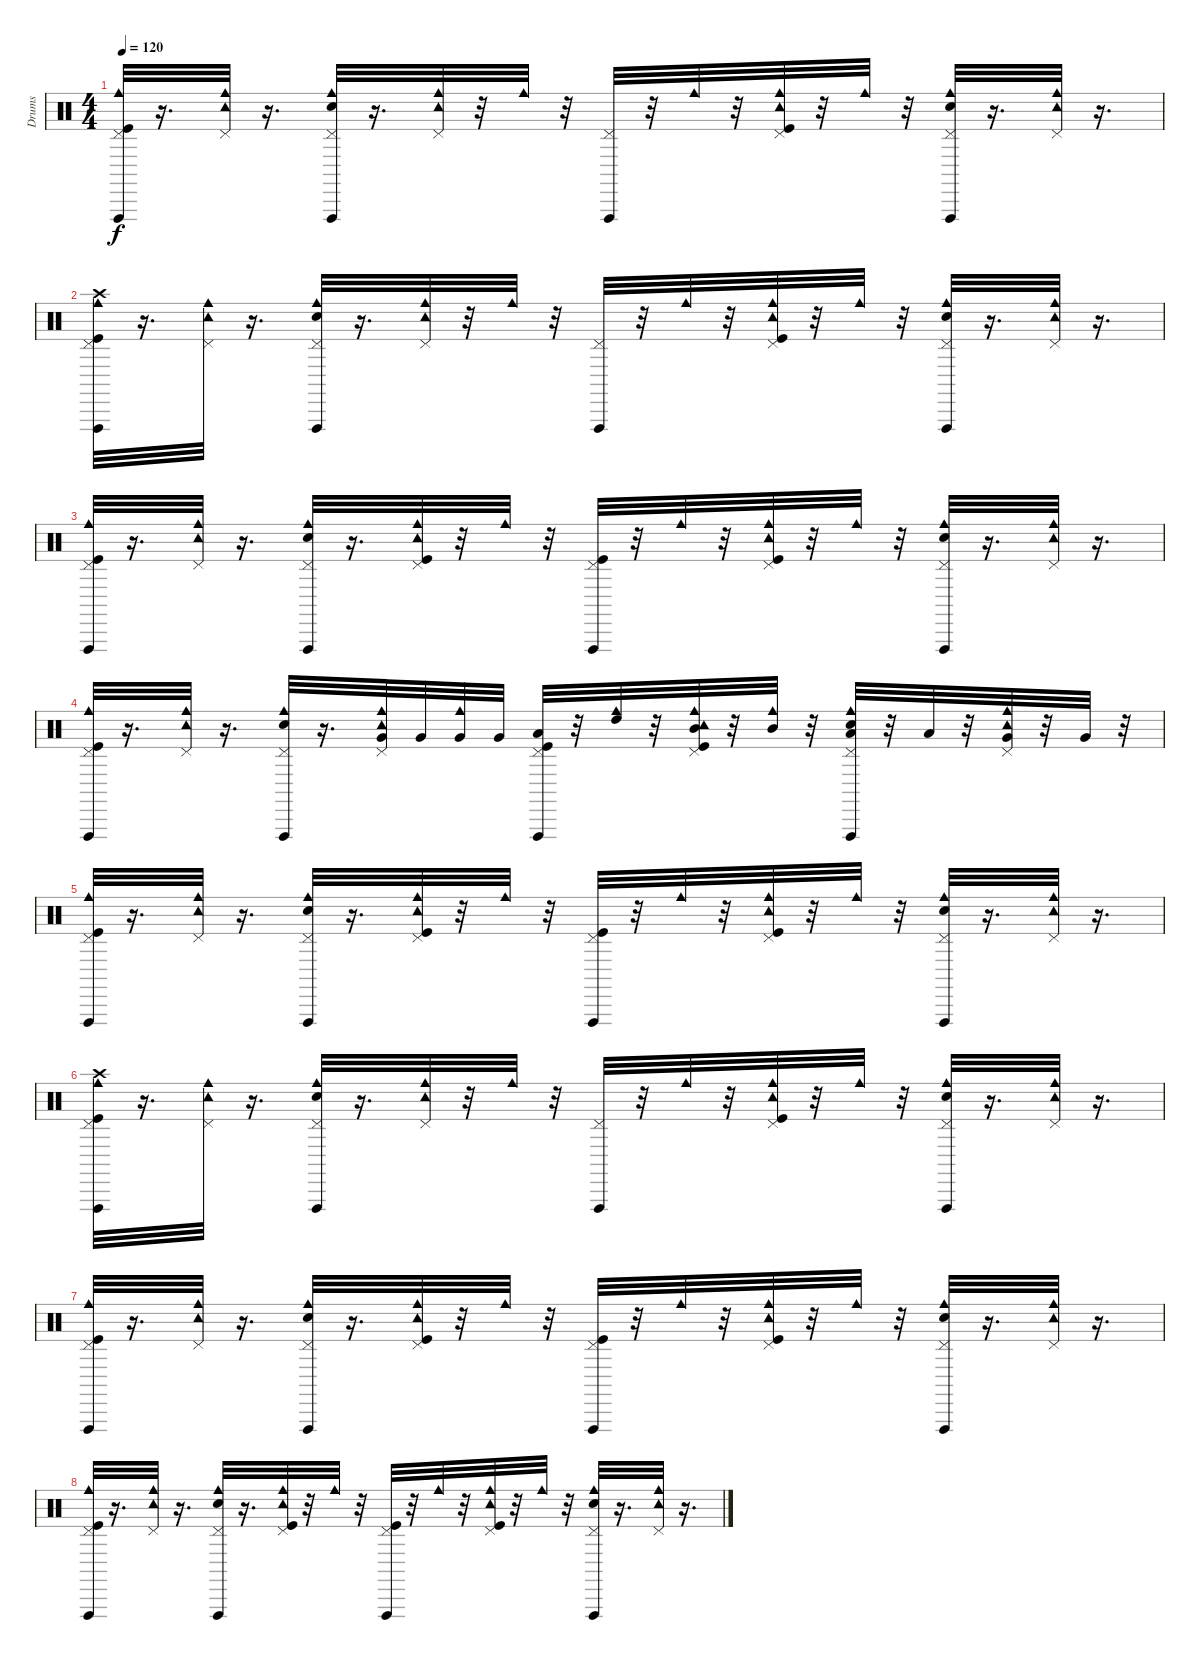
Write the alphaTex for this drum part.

\track ("Drums" "Drums") {instrument percussion}
\staff {score}
\articulation defaults
\ts (4 4)
\tempo 120
\clef neutral
\ks c
("Pedal Hi-Hat (hit)" "Kick (hit)" "Cowbell medium (hit)" "Vibraslap (hit)").32{dy f} r.16{d} ("Pedal Hi-Hat (hit)" "Tambourine (hit)" "Cowbell medium (hit)").32 r.16{d} ("Pedal Hi-Hat (hit)" "Snare (hit) 2" "Cowbell medium (hit)" "Vibraslap (hit)").32 r.16{d} ("Pedal Hi-Hat (hit)" "Tambourine (hit)" "Cowbell medium (hit)").32 r.32 "Cowbell medium (hit)".32 r.32 ("Pedal Hi-Hat (hit)" "Vibraslap (hit)").32 r.32 "Cowbell medium (hit)".32 r.32 ("Pedal Hi-Hat (hit)" "Kick (hit)" "Tambourine (hit)" "Cowbell medium (hit)").32 r.32 "Cowbell medium (hit)".32 r.32 ("Pedal Hi-Hat (hit)" "Snare (hit) 2" "Cowbell medium (hit)" "Vibraslap (hit)").32 r.16{d} ("Pedal Hi-Hat (hit)" "Tambourine (hit)" "Cowbell medium (hit)").32 r.16{d} |
("Kick (hit)" "Cowbell medium (hit)" "Pedal Hi-Hat (hit)" "Crash high (hit)" "Vibraslap (hit)").32 r.16{d} ("Cowbell medium (hit)" "Pedal Hi-Hat (hit)" "Tambourine (hit)").32 r.16{d} ("Pedal Hi-Hat (hit)" "Snare (hit) 2" "Cowbell medium (hit)" "Vibraslap (hit)").32 r.16{d} ("Cowbell medium (hit)" "Pedal Hi-Hat (hit)" "Tambourine (hit)").32 r.32 "Cowbell medium (hit)".32 r.32 ("Pedal Hi-Hat (hit)" "Vibraslap (hit)").32 r.32 "Cowbell medium (hit)".32 r.32 ("Kick (hit)" "Pedal Hi-Hat (hit)" "Tambourine (hit)" "Cowbell medium (hit)").32 r.32 "Cowbell medium (hit)".32 r.32 ("Cowbell medium (hit)" "Pedal Hi-Hat (hit)" "Snare (hit) 2" "Vibraslap (hit)").32 r.16{d} ("Tambourine (hit)" "Pedal Hi-Hat (hit)" "Cowbell medium (hit)").32 r.16{d} |
("Kick (hit)" "Cowbell medium (hit)" "Pedal Hi-Hat (hit)" "Vibraslap (hit)").32 r.16{d} ("Tambourine (hit)" "Pedal Hi-Hat (hit)" "Cowbell medium (hit)").32 r.16{d} ("Snare (hit) 2" "Pedal Hi-Hat (hit)" "Cowbell medium (hit)" "Vibraslap (hit)").32 r.16{d} ("Kick (hit)" "Pedal Hi-Hat (hit)" "Tambourine (hit)" "Cowbell medium (hit)").32 r.32 "Cowbell medium (hit)".32 r.32 ("Kick (hit)" "Pedal Hi-Hat (hit)" "Vibraslap (hit)").32 r.32 "Cowbell medium (hit)".32 r.32 ("Kick (hit)" "Cowbell medium (hit)" "Tambourine (hit)" "Pedal Hi-Hat (hit)").32 r.32 "Cowbell medium (hit)".32 r.32 ("Pedal Hi-Hat (hit)" "Cowbell medium (hit)" "Snare (hit) 2" "Vibraslap (hit)").32 r.16{d} ("Tambourine (hit)" "Cowbell medium (hit)" "Pedal Hi-Hat (hit)").32 r.16{d} |
("Kick (hit)" "Vibraslap (hit)" "Cowbell medium (hit)" "Pedal Hi-Hat (hit)").32 r.16{d} ("Cowbell medium (hit)" "Pedal Hi-Hat (hit)" "Tambourine (hit)").32 r.16{d} ("Vibraslap (hit)" "Pedal Hi-Hat (hit)" "Snare (hit) 2" "Cowbell medium (hit)").32 r.16{d} ("Very Low Tom (hit)" "Cowbell medium (hit)" "Pedal Hi-Hat (hit)" "Tambourine (hit)").32 "Very Low Tom (hit)".32 ("Very Low Tom (hit)" "Cowbell medium (hit)").32 "Very Low Tom (hit)".32 ("Kick (hit)" "Vibraslap (hit)" "Low Tom (hit)" "Pedal Hi-Hat (hit)").32 r.32 ("High Tom (hit)" "Cowbell medium (hit)").32 r.32 ("Kick (hit)" "Mid Tom (hit)" "Pedal Hi-Hat (hit)" "Tambourine (hit)" "Cowbell medium (hit)").32 r.32 ("Mid Tom (hit)" "Cowbell medium (hit)").32 r.32 ("Vibraslap (hit)" "Low Tom (hit)" "Cowbell medium (hit)" "Pedal Hi-Hat (hit)" "Snare (hit) 2").32 r.32 "Low Tom (hit)".32 r.32 ("Very Low Tom (hit)" "Tambourine (hit)" "Pedal Hi-Hat (hit)" "Cowbell medium (hit)").32 r.32 "Very Low Tom (hit)".32 r.32 |
("Vibraslap (hit)" "Cowbell medium (hit)" "Pedal Hi-Hat (hit)" "Kick (hit)").32 r.16{d} ("Tambourine (hit)" "Pedal Hi-Hat (hit)" "Cowbell medium (hit)").32 r.16{d} ("Pedal Hi-Hat (hit)" "Snare (hit) 2" "Cowbell medium (hit)" "Vibraslap (hit)").32 r.16{d} ("Tambourine (hit)" "Pedal Hi-Hat (hit)" "Kick (hit)" "Cowbell medium (hit)").32 r.32 "Cowbell medium (hit)".32 r.32 ("Pedal Hi-Hat (hit)" "Vibraslap (hit)" "Kick (hit)").32 r.32 "Cowbell medium (hit)".32 r.32 ("Tambourine (hit)" "Pedal Hi-Hat (hit)" "Cowbell medium (hit)" "Kick (hit)").32 r.32 "Cowbell medium (hit)".32 r.32 ("Vibraslap (hit)" "Pedal Hi-Hat (hit)" "Cowbell medium (hit)" "Snare (hit) 2").32 r.16{d} ("Tambourine (hit)" "Cowbell medium (hit)" "Pedal Hi-Hat (hit)").32 r.16{d} |
("Vibraslap (hit)" "Cowbell medium (hit)" "Pedal Hi-Hat (hit)" "Crash high (hit)" "Kick (hit)").32 r.16{d} ("Pedal Hi-Hat (hit)" "Tambourine (hit)" "Cowbell medium (hit)").32 r.16{d} ("Snare (hit) 2" "Cowbell medium (hit)" "Vibraslap (hit)" "Pedal Hi-Hat (hit)").32 r.16{d} ("Cowbell medium (hit)" "Pedal Hi-Hat (hit)" "Tambourine (hit)").32 r.32 "Cowbell medium (hit)".32 r.32 ("Vibraslap (hit)" "Pedal Hi-Hat (hit)").32 r.32 "Cowbell medium (hit)".32 r.32 ("Tambourine (hit)" "Cowbell medium (hit)" "Pedal Hi-Hat (hit)" "Kick (hit)").32 r.32 "Cowbell medium (hit)".32 r.32 ("Cowbell medium (hit)" "Vibraslap (hit)" "Snare (hit) 2" "Pedal Hi-Hat (hit)").32 r.16{d} ("Pedal Hi-Hat (hit)" "Cowbell medium (hit)" "Tambourine (hit)").32 r.16{d} |
("Kick (hit)" "Cowbell medium (hit)" "Pedal Hi-Hat (hit)" "Vibraslap (hit)").32 r.16{d} ("Tambourine (hit)" "Pedal Hi-Hat (hit)" "Cowbell medium (hit)").32 r.16{d} ("Pedal Hi-Hat (hit)" "Snare (hit) 2" "Cowbell medium (hit)" "Vibraslap (hit)").32 r.16{d} ("Pedal Hi-Hat (hit)" "Tambourine (hit)" "Kick (hit)" "Cowbell medium (hit)").32 r.32 "Cowbell medium (hit)".32 r.32 ("Pedal Hi-Hat (hit)" "Kick (hit)" "Vibraslap (hit)").32 r.32 "Cowbell medium (hit)".32 r.32 ("Tambourine (hit)" "Pedal Hi-Hat (hit)" "Cowbell medium (hit)" "Kick (hit)").32 r.32 "Cowbell medium (hit)".32 r.32 ("Cowbell medium (hit)" "Pedal Hi-Hat (hit)" "Snare (hit) 2" "Vibraslap (hit)").32 r.16{d} ("Pedal Hi-Hat (hit)" "Tambourine (hit)" "Cowbell medium (hit)").32 r.16{d} |
("Vibraslap (hit)" "Cowbell medium (hit)" "Pedal Hi-Hat (hit)" "Kick (hit)").32 r.16{d} ("Tambourine (hit)" "Pedal Hi-Hat (hit)" "Cowbell medium (hit)").32 r.16{d} ("Pedal Hi-Hat (hit)" "Snare (hit) 2" "Cowbell medium (hit)" "Vibraslap (hit)").32 r.16{d} ("Tambourine (hit)" "Pedal Hi-Hat (hit)" "Kick (hit)" "Cowbell medium (hit)").32 r.32 "Cowbell medium (hit)".32 r.32 ("Pedal Hi-Hat (hit)" "Vibraslap (hit)" "Kick (hit)").32 r.32 "Cowbell medium (hit)".32 r.32 ("Tambourine (hit)" "Pedal Hi-Hat (hit)" "Cowbell medium (hit)" "Kick (hit)").32 r.32 "Cowbell medium (hit)".32 r.32 ("Vibraslap (hit)" "Pedal Hi-Hat (hit)" "Cowbell medium (hit)" "Snare (hit) 2").32 r.16{d} ("Tambourine (hit)" "Cowbell medium (hit)" "Pedal Hi-Hat (hit)").32 r.16{d}
